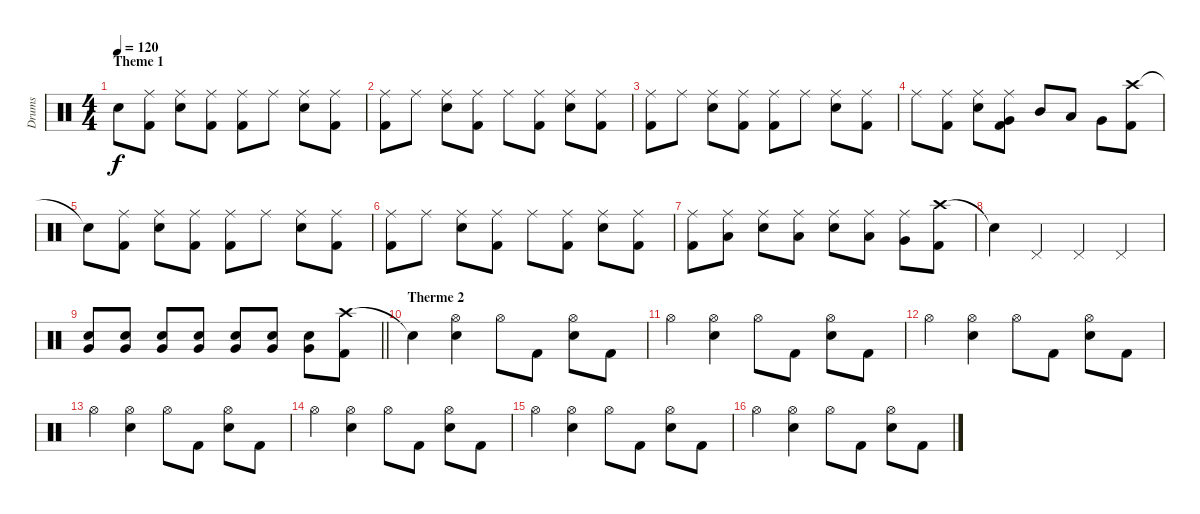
\track ("Drums" "Drums") {instrument percussion}
\staff {score}
\articulation defaults
\ts (4 4)
\section ("" "Theme 1")
\tempo 120
\clef neutral
\ks c "Snare (hit)"{t}.8{dy f}
("Ride (middle)" "Kick (hit) 2").8 ("Ride (middle)" "Snare (hit) 2").8 ("Ride (middle)" "Kick (hit) 2").8 ("Ride (middle)" "Kick (hit) 2").8 "Ride (middle)".8 ("Ride (middle)" "Snare (hit) 2").8 ("Ride (middle)" "Kick (hit) 2").8 |
("Ride (middle)" "Kick (hit) 2").8 "Ride (middle)".8 ("Ride (middle)" "Snare (hit) 2").8 ("Ride (middle)" "Kick (hit) 2").8 "Ride (middle)".8 ("Ride (middle)" "Kick (hit) 2").8 ("Ride (middle)" "Snare (hit) 2").8 ("Ride (middle)" "Kick (hit) 2").8 |
("Ride (middle)" "Kick (hit) 2").8 "Ride (middle)".8 ("Ride (middle)" "Snare (hit) 2").8 ("Ride (middle)" "Kick (hit) 2").8 ("Ride (middle)" "Kick (hit) 2").8 "Ride (middle)".8 ("Ride (middle)" "Snare (hit) 2").8 ("Ride (middle)" "Kick (hit) 2").8 |
"Ride (middle)".8 ("Ride (middle)" "Kick (hit) 2").8 ("Ride (middle)" "Snare (hit) 2").8 ("Ride (middle)" "Very Low Tom (hit)" "Kick (hit) 2").8 "Mid Tom (hit)".8 "Low Tom (hit)".8 "Very Low Tom (hit)".8 ("Crash high (hit)" "Kick (hit) 2").8 |
"Snare (hit)"{t}.8 ("Ride (middle)" "Kick (hit) 2").8 ("Ride (middle)" "Snare (hit) 2").8 ("Ride (middle)" "Kick (hit) 2").8 ("Ride (middle)" "Kick (hit) 2").8 "Ride (middle)".8 ("Ride (middle)" "Snare (hit) 2").8 ("Ride (middle)" "Kick (hit) 2").8 |
("Ride (middle)" "Kick (hit) 2").8 "Ride (middle)".8 ("Ride (middle)" "Snare (hit) 2").8 ("Ride (middle)" "Kick (hit) 2").8 "Ride (middle)".8 ("Ride (middle)" "Kick (hit) 2").8 ("Ride (middle)" "Snare (hit) 2").8 ("Ride (middle)" "Kick (hit) 2").8 |
("Ride (middle)" "Kick (hit) 2").8 ("Ride (middle)" "Low Tom (hit)").8 ("Ride (middle)" "Snare (hit) 2").8 ("Ride (middle)" "Low Tom (hit)").8 ("Ride (middle)" "Snare (hit) 2").8 ("Ride (middle)" "Low Tom (hit)").8 ("Ride (middle)" "Very Low Tom (hit)").8 ("Crash high (hit)" "Kick (hit) 2").8 |
"Snare (hit)"{t}.4 "Pedal Hi-Hat (hit)".4 "Pedal Hi-Hat (hit)".4 "Pedal Hi-Hat (hit)".4 |
\barLineRight lightlight
("Snare (hit) 2" "Very Low Tom (hit)").8 ("Snare (hit) 2" "Very Low Tom (hit)").8 ("Snare (hit) 2" "Very Low Tom (hit)").8 ("Snare (hit) 2" "Very Low Tom (hit)").8 ("Snare (hit) 2" "Very Low Tom (hit)").8 ("Snare (hit) 2" "Very Low Tom (hit)").8 ("Snare (hit) 2" "Very Low Tom (hit)").8 ("Crash high (hit)" "Kick (hit) 2").8 |
\section ("" "Therme 2")
"Snare (hit)"{t}.4 ("Hi-Hat (open)" "Snare (hit) 2").4 "Hi-Hat (open)".8 "Kick (hit) 2".8 ("Hi-Hat (open)" "Snare (hit) 2").8 "Kick (hit) 2".8 |
"Hi-Hat (open)".4 ("Hi-Hat (open)" "Snare (hit) 2").4 "Hi-Hat (open)".8 "Kick (hit) 2".8 ("Hi-Hat (open)" "Snare (hit) 2").8 "Kick (hit) 2".8 |
"Hi-Hat (open)".4 ("Hi-Hat (open)" "Snare (hit) 2").4 "Hi-Hat (open)".8 "Kick (hit) 2".8 ("Hi-Hat (open)" "Snare (hit) 2").8 "Kick (hit) 2".8 |
"Hi-Hat (open)".4 ("Hi-Hat (open)" "Snare (hit) 2").4 "Hi-Hat (open)".8 "Kick (hit) 2".8 ("Hi-Hat (open)" "Snare (hit) 2").8 "Kick (hit) 2".8 |
"Hi-Hat (open)".4 ("Hi-Hat (open)" "Snare (hit) 2").4 "Hi-Hat (open)".8 "Kick (hit) 2".8 ("Hi-Hat (open)" "Snare (hit) 2").8 "Kick (hit) 2".8 |
"Hi-Hat (open)".4 ("Hi-Hat (open)" "Snare (hit) 2").4 "Hi-Hat (open)".8 "Kick (hit) 2".8 ("Hi-Hat (open)" "Snare (hit) 2").8 "Kick (hit) 2".8 |
"Hi-Hat (open)".4 ("Hi-Hat (open)" "Snare (hit) 2").4 "Hi-Hat (open)".8 "Kick (hit) 2".8 ("Hi-Hat (open)" "Snare (hit) 2").8 "Kick (hit) 2".8
